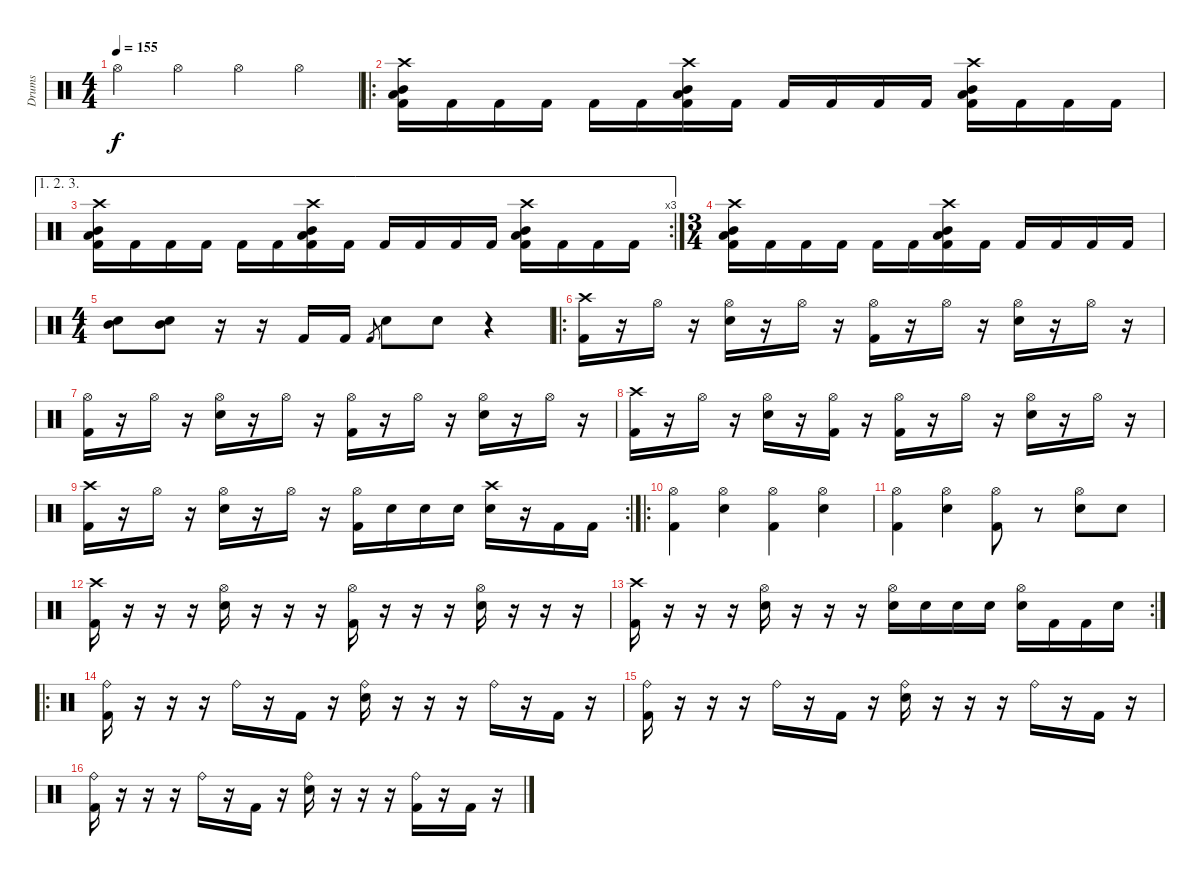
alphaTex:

\track ("Drums" "Drums") {instrument percussion}
\staff {score}
\articulation defaults
\ts (4 4)
\tempo 155
\clef neutral
\ks c "Hi-Hat (open)".4{dy f} "Hi-Hat (open)".4 "Hi-Hat (open)".4 "Hi-Hat (open)".4
|
\ro
("Crash high (hit)" "Low Tom (hit)" "Mid Tom (hit)" "Kick (hit) 2").16 "Kick (hit) 2".16 "Kick (hit) 2".16 "Kick (hit) 2".16 "Kick (hit) 2".16 "Kick (hit) 2".16 ("Mid Tom (hit)" "Crash high (hit)" "Low Tom (hit)" "Kick (hit) 2").16 "Kick (hit) 2".16 "Kick (hit) 2".16 "Kick (hit) 2".16 "Kick (hit) 2".16 "Kick (hit) 2".16 ("Low Tom (hit)" "Crash high (hit)" "Mid Tom (hit)" "Kick (hit) 2").16 "Kick (hit) 2".16 "Kick (hit) 2".16 "Kick (hit) 2".16 |
\ae (1 2 3)
\rc 3
("Crash high (hit)" "Low Tom (hit)" "Mid Tom (hit)" "Kick (hit) 2").16 "Kick (hit) 2".16 "Kick (hit) 2".16 "Kick (hit) 2".16 "Kick (hit) 2".16 "Kick (hit) 2".16 ("Mid Tom (hit)" "Crash high (hit)" "Low Tom (hit)" "Kick (hit) 2").16 "Kick (hit) 2".16 "Kick (hit) 2".16 "Kick (hit) 2".16 "Kick (hit) 2".16 "Kick (hit) 2".16 ("Low Tom (hit)" "Crash high (hit)" "Mid Tom (hit)" "Kick (hit) 2").16 "Kick (hit) 2".16 "Kick (hit) 2".16 "Kick (hit) 2".16 |
\ts (3 4)
("Crash high (hit)" "Low Tom (hit)" "Mid Tom (hit)" "Kick (hit) 2").16 "Kick (hit) 2".16 "Kick (hit) 2".16 "Kick (hit) 2".16 "Kick (hit) 2".16 "Kick (hit) 2".16 ("Crash high (hit)" "Mid Tom (hit)" "Low Tom (hit)" "Kick (hit) 2").16 "Kick (hit) 2".16 "Kick (hit) 2".16 "Kick (hit) 2".16 "Kick (hit) 2".16 "Kick (hit) 2".16 |
\ts (4 4)
("Mid Tom (hit)" "Electric Snare (hit)").8 ("Mid Tom (hit)" "Electric Snare (hit)").8 r.16 r.16 "Kick (hit) 2".16 "Kick (hit) 2".16 "Kick (hit) 2".8{gr} "Electric Snare (hit)".8 "Electric Snare (hit)".8 r.4 |
\ro
("Crash high (hit)" "Kick (hit) 2").16 r.16 "Hi-Hat (open)".16 r.16 ("Hi-Hat (open)" "Electric Snare (hit)").16 r.16 "Hi-Hat (open)".16 r.16 ("Hi-Hat (open)" "Kick (hit) 2").16 r.16 "Hi-Hat (open)".16 r.16 ("Hi-Hat (open)" "Electric Snare (hit)").16 r.16 "Hi-Hat (open)".16 r.16 |
("Hi-Hat (open)" "Kick (hit) 2").16 r.16 "Hi-Hat (open)".16 r.16 ("Hi-Hat (open)" "Electric Snare (hit)").16 r.16 "Hi-Hat (open)".16 r.16 ("Hi-Hat (open)" "Kick (hit) 2").16 r.16 "Hi-Hat (open)".16 r.16 ("Hi-Hat (open)" "Electric Snare (hit)").16 r.16 "Hi-Hat (open)".16 r.16 |
("Crash high (hit)" "Kick (hit) 2").16 r.16 "Hi-Hat (open)".16 r.16 ("Hi-Hat (open)" "Electric Snare (hit)").16 r.16 ("Hi-Hat (open)" "Kick (hit) 2").16 r.16 ("Hi-Hat (open)" "Kick (hit) 2").16 r.16 "Hi-Hat (open)".16 r.16 ("Hi-Hat (open)" "Electric Snare (hit)").16 r.16 "Hi-Hat (open)".16 r.16 |
\rc 2
("Crash high (hit)" "Kick (hit) 2").16 r.16 "Hi-Hat (open)".16 r.16 ("Hi-Hat (open)" "Electric Snare (hit)").16 r.16 "Hi-Hat (open)".16 r.16 ("Hi-Hat (open)" "Kick (hit) 2").16 "Electric Snare (hit)".16 "Electric Snare (hit)".16 "Electric Snare (hit)".16 ("Electric Snare (hit)" "Crash high (hit)").16 r.16 "Kick (hit) 2".16 "Kick (hit) 2".16 |
\ro
("Hi-Hat (open)" "Kick (hit) 2").4 ("Hi-Hat (open)" "Electric Snare (hit)").4 ("Hi-Hat (open)" "Kick (hit) 2").4 ("Hi-Hat (open)" "Electric Snare (hit)").4 |
("Hi-Hat (open)" "Kick (hit) 2").4 ("Hi-Hat (open)" "Electric Snare (hit)").4 ("Hi-Hat (open)" "Kick (hit) 2").8 r.8 ("Hi-Hat (open)" "Electric Snare (hit)").8 "Electric Snare (hit)".8 |
("Crash high (hit)" "Kick (hit) 2").16 r.16 r.16 r.16 ("Hi-Hat (open)" "Electric Snare (hit)").16 r.16 r.16 r.16 ("Hi-Hat (open)" "Kick (hit) 2").16 r.16 r.16 r.16 ("Hi-Hat (open)" "Electric Snare (hit)").16 r.16 r.16 r.16 |
\rc 2
("Crash high (hit)" "Kick (hit) 2").16 r.16 r.16 r.16 ("Hi-Hat (open)" "Electric Snare (hit)").16 r.16 r.16 r.16 ("Hi-Hat (open)" "Electric Snare (hit)").16 "Electric Snare (hit)".16 "Electric Snare (hit)".16 "Electric Snare (hit)".16 ("Hi-Hat (open)" "Electric Snare (hit)").16 "Kick (hit) 2".16 "Kick (hit) 2".16 "Electric Snare (hit)".16 |
\ro
("Ride (bell)" "Kick (hit) 2").16 r.16 r.16 r.16 "Ride (bell)".16 r.16 "Kick (hit) 2".16 r.16 ("Ride (bell)" "Electric Snare (hit)").16 r.16 r.16 r.16 "Ride (bell)".16 r.16 "Kick (hit) 2".16 r.16 |
("Ride (bell)" "Kick (hit) 2").16 r.16 r.16 r.16 "Ride (bell)".16 r.16 "Kick (hit) 2".16 r.16 ("Ride (bell)" "Electric Snare (hit)").16 r.16 r.16 r.16 "Ride (bell)".16 r.16 "Kick (hit) 2".16 r.16 |
("Ride (bell)" "Kick (hit) 2").16 r.16 r.16 r.16 "Ride (bell)".16 r.16 "Kick (hit) 2".16 r.16 ("Ride (bell)" "Electric Snare (hit)").16 r.16 r.16 r.16 ("Ride (bell)" "Kick (hit) 2").16 r.16 "Kick (hit) 2".16 r.16
